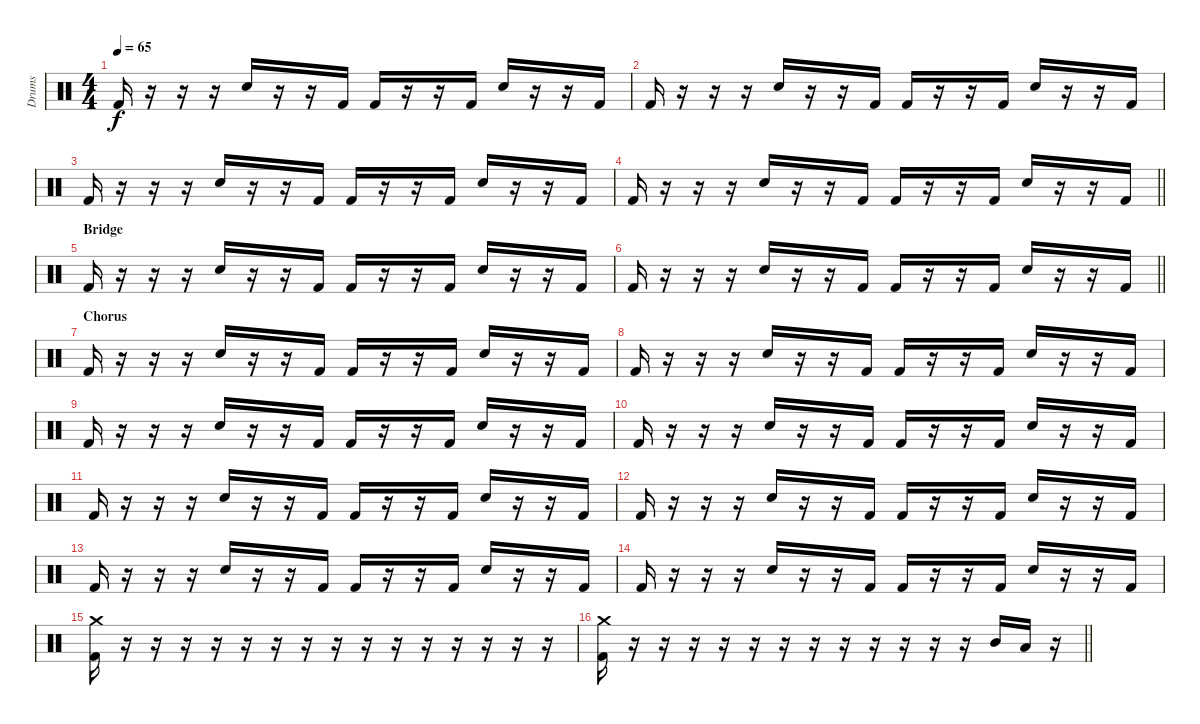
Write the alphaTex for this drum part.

\track ("Drums" "Drums") {instrument percussion}
\staff {score}
\articulation defaults
\ts (4 4)
\tempo 65
\clef neutral
\ks c "Kick (hit) 2".16{dy f}
r.16 r.16 r.16 "Snare (hit) 2".16 r.16 r.16 "Kick (hit) 2".16 "Kick (hit) 2".16 r.16 r.16 "Kick (hit) 2".16 "Snare (hit) 2".16 r.16 r.16 "Kick (hit) 2".16 |
"Kick (hit) 2".16 r.16 r.16 r.16 "Snare (hit) 2".16 r.16 r.16 "Kick (hit) 2".16 "Kick (hit) 2".16 r.16 r.16 "Kick (hit) 2".16 "Snare (hit) 2".16 r.16 r.16 "Kick (hit) 2".16 |
"Kick (hit) 2".16 r.16 r.16 r.16 "Snare (hit) 2".16 r.16 r.16 "Kick (hit) 2".16 "Kick (hit) 2".16 r.16 r.16 "Kick (hit) 2".16 "Snare (hit) 2".16 r.16 r.16 "Kick (hit) 2".16 |
\barLineRight lightlight "Kick (hit) 2".16
r.16 r.16 r.16 "Snare (hit) 2".16 r.16 r.16 "Kick (hit) 2".16 "Kick (hit) 2".16 r.16 r.16 "Kick (hit) 2".16 "Snare (hit) 2".16 r.16 r.16 "Kick (hit) 2".16 |
\section ("" "Bridge")
"Kick (hit) 2".16 r.16 r.16 r.16 "Snare (hit) 2".16 r.16 r.16 "Kick (hit) 2".16 "Kick (hit) 2".16 r.16 r.16 "Kick (hit) 2".16 "Snare (hit) 2".16 r.16 r.16 "Kick (hit) 2".16 |
\barLineRight lightlight "Kick (hit) 2".16
r.16 r.16 r.16 "Snare (hit) 2".16 r.16 r.16 "Kick (hit) 2".16 "Kick (hit) 2".16 r.16 r.16 "Kick (hit) 2".16 "Snare (hit) 2".16 r.16 r.16 "Kick (hit) 2".16 |
\section ("" "Chorus")
"Kick (hit) 2".16 r.16 r.16 r.16 "Snare (hit) 2".16 r.16 r.16 "Kick (hit) 2".16 "Kick (hit) 2".16 r.16 r.16 "Kick (hit) 2".16 "Snare (hit) 2".16 r.16 r.16 "Kick (hit) 2".16 |
"Kick (hit) 2".16 r.16 r.16 r.16 "Snare (hit) 2".16 r.16 r.16 "Kick (hit) 2".16 "Kick (hit) 2".16 r.16 r.16 "Kick (hit) 2".16 "Snare (hit) 2".16 r.16 r.16 "Kick (hit) 2".16 |
"Kick (hit) 2".16 r.16 r.16 r.16 "Snare (hit) 2".16 r.16 r.16 "Kick (hit) 2".16 "Kick (hit) 2".16 r.16 r.16 "Kick (hit) 2".16 "Snare (hit) 2".16 r.16 r.16 "Kick (hit) 2".16 |
"Kick (hit) 2".16 r.16 r.16 r.16 "Snare (hit) 2".16 r.16 r.16 "Kick (hit) 2".16 "Kick (hit) 2".16 r.16 r.16 "Kick (hit) 2".16 "Snare (hit) 2".16 r.16 r.16 "Kick (hit) 2".16 |
"Kick (hit) 2".16 r.16 r.16 r.16 "Snare (hit) 2".16 r.16 r.16 "Kick (hit) 2".16 "Kick (hit) 2".16 r.16 r.16 "Kick (hit) 2".16 "Snare (hit) 2".16 r.16 r.16 "Kick (hit) 2".16 |
"Kick (hit) 2".16 r.16 r.16 r.16 "Snare (hit) 2".16 r.16 r.16 "Kick (hit) 2".16 "Kick (hit) 2".16 r.16 r.16 "Kick (hit) 2".16 "Snare (hit) 2".16 r.16 r.16 "Kick (hit) 2".16 |
"Kick (hit) 2".16 r.16 r.16 r.16 "Snare (hit) 2".16 r.16 r.16 "Kick (hit) 2".16 "Kick (hit) 2".16 r.16 r.16 "Kick (hit) 2".16 "Snare (hit) 2".16 r.16 r.16 "Kick (hit) 2".16 |
"Kick (hit) 2".16 r.16 r.16 r.16 "Snare (hit) 2".16 r.16 r.16 "Kick (hit) 2".16 "Kick (hit) 2".16 r.16 r.16 "Kick (hit) 2".16 "Snare (hit) 2".16 r.16 r.16 "Kick (hit) 2".16 |
("Kick (hit) 2" "Crash medium (hit)").16 r.16 r.16 r.16 r.16 r.16 r.16 r.16 r.16 r.16 r.16 r.16 r.16 r.16 r.16 r.16 |
\barLineRight lightlight
("Kick (hit) 2" "Crash medium (hit)").16 r.16 r.16 r.16 r.16 r.16 r.16 r.16 r.16 r.16 r.16 r.16 r.16 "Mid Tom (hit)".16 "Low Tom (hit)".16 r.16
